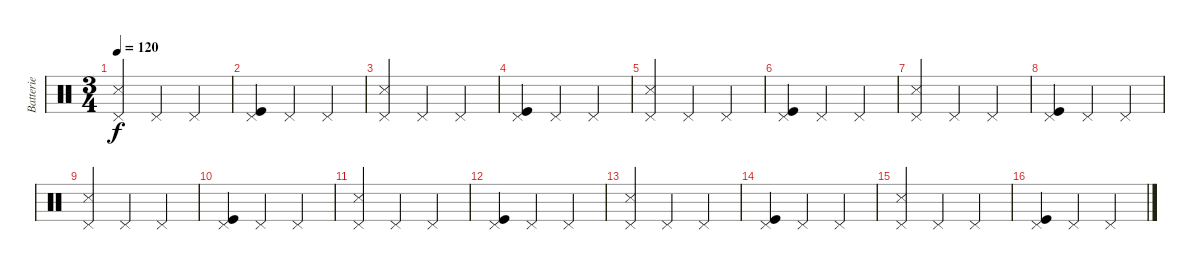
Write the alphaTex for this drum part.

\track ("Batterie" "Batterie") {instrument percussion}
\staff {score}
\articulation defaults
\ts (3 4)
\tempo 120
\clef neutral
\ks c
("Pedal Hi-Hat (hit)" "Snare (side stick) 3").4{dy f} "Pedal Hi-Hat (hit)".4 "Pedal Hi-Hat (hit)".4 |
("Pedal Hi-Hat (hit)" "Kick (hit)").4 "Pedal Hi-Hat (hit)".4 "Pedal Hi-Hat (hit)".4 |
("Pedal Hi-Hat (hit)" "Snare (side stick) 3").4 "Pedal Hi-Hat (hit)".4 "Pedal Hi-Hat (hit)".4 |
("Pedal Hi-Hat (hit)" "Kick (hit)").4 "Pedal Hi-Hat (hit)".4 "Pedal Hi-Hat (hit)".4 |
("Pedal Hi-Hat (hit)" "Snare (side stick) 3").4 "Pedal Hi-Hat (hit)".4 "Pedal Hi-Hat (hit)".4 |
("Pedal Hi-Hat (hit)" "Kick (hit)").4 "Pedal Hi-Hat (hit)".4 "Pedal Hi-Hat (hit)".4 |
("Pedal Hi-Hat (hit)" "Snare (side stick) 3").4 "Pedal Hi-Hat (hit)".4 "Pedal Hi-Hat (hit)".4 |
("Pedal Hi-Hat (hit)" "Kick (hit)").4 "Pedal Hi-Hat (hit)".4 "Pedal Hi-Hat (hit)".4 |
("Pedal Hi-Hat (hit)" "Snare (side stick) 3").4 "Pedal Hi-Hat (hit)".4 "Pedal Hi-Hat (hit)".4 |
("Pedal Hi-Hat (hit)" "Kick (hit)").4 "Pedal Hi-Hat (hit)".4 "Pedal Hi-Hat (hit)".4 |
("Pedal Hi-Hat (hit)" "Snare (side stick) 3").4 "Pedal Hi-Hat (hit)".4 "Pedal Hi-Hat (hit)".4 |
("Pedal Hi-Hat (hit)" "Kick (hit)").4 "Pedal Hi-Hat (hit)".4 "Pedal Hi-Hat (hit)".4 |
("Pedal Hi-Hat (hit)" "Snare (side stick) 3").4 "Pedal Hi-Hat (hit)".4 "Pedal Hi-Hat (hit)".4 |
("Pedal Hi-Hat (hit)" "Kick (hit)").4 "Pedal Hi-Hat (hit)".4 "Pedal Hi-Hat (hit)".4 |
("Pedal Hi-Hat (hit)" "Snare (side stick) 3").4 "Pedal Hi-Hat (hit)".4 "Pedal Hi-Hat (hit)".4 |
("Pedal Hi-Hat (hit)" "Kick (hit)").4 "Pedal Hi-Hat (hit)".4 "Pedal Hi-Hat (hit)".4
